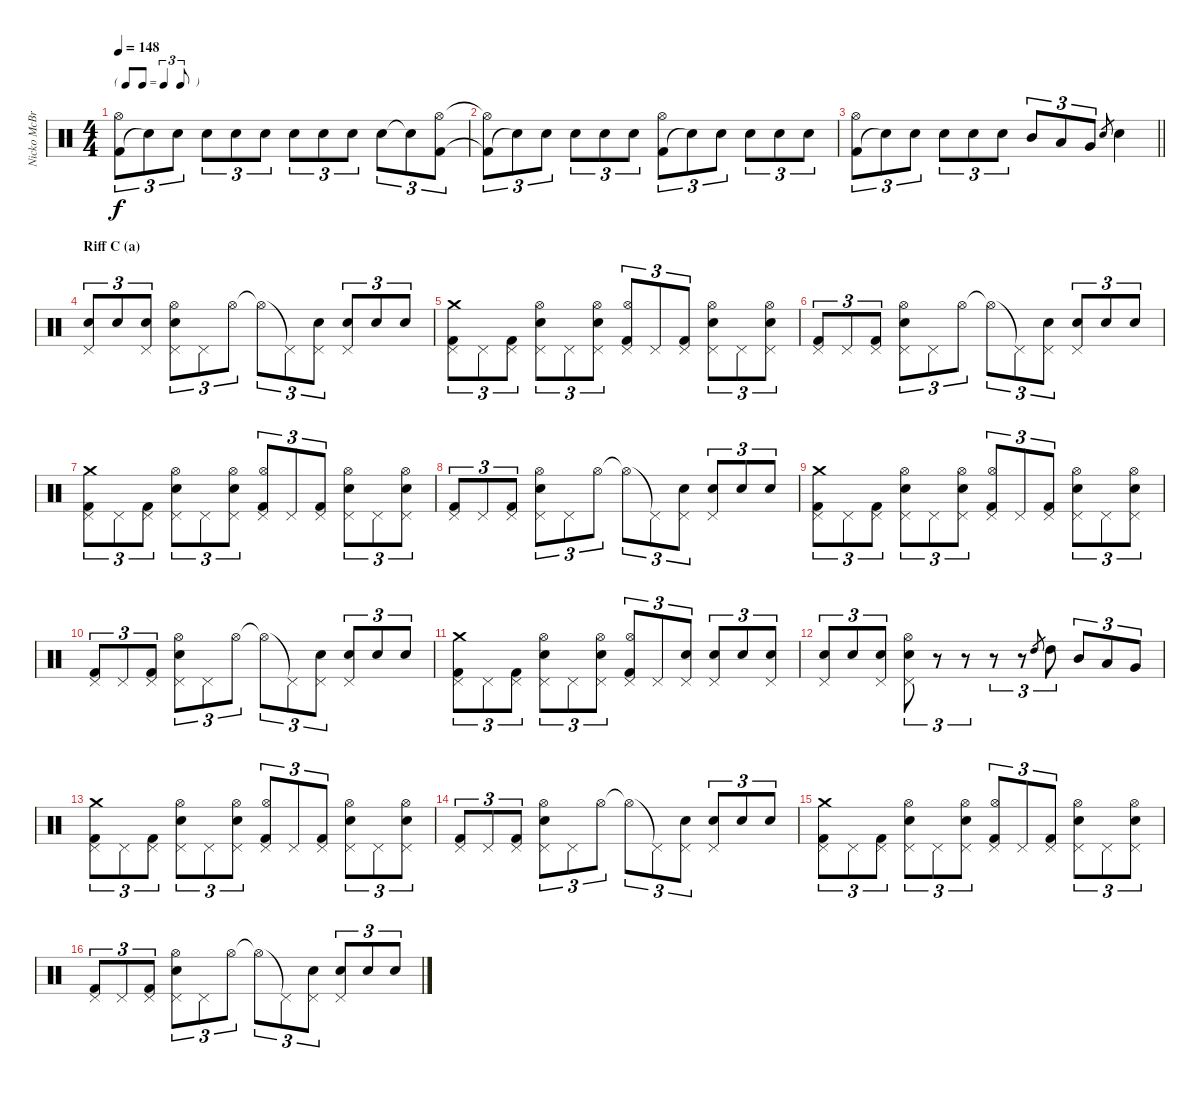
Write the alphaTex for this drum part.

\track ("Nicko McBrain" "Nicko McBr") {instrument percussion}
\staff {score}
\articulation defaults
\ts (4 4)
\tf triplet8th
\tempo 148
\clef neutral
\ks c
("Kick (hit) 2" "Hi-Hat (open)").8{tu (3 2) dy f} "Snare (hit)"{t}.8{tu (3 2)} "Snare (hit) 2".8{tu (3 2)} "Snare (hit) 2".8{tu (3 2)} "Snare (hit) 2".8{tu (3 2)} "Snare (hit) 2".8{tu (3 2)} "Snare (hit) 2".8{tu (3 2)} "Snare (hit) 2".8{tu (3 2)} "Snare (hit) 2".8{tu (3 2)} "Snare (hit) 2".8{tu (3 2)} "Snare (hit) 2"{t}.8{tu (3 2)} ("Kick (hit) 2" "Hi-Hat (open)").8{tu (3 2)} |
("Kick (hit) 2"{t} "Hi-Hat (open)"{t}).8{tu (3 2)} "Snare (hit)"{t}.8{tu (3 2)} "Snare (hit) 2".8{tu (3 2)} "Snare (hit) 2".8{tu (3 2)} "Snare (hit) 2".8{tu (3 2)} "Snare (hit) 2".8{tu (3 2)} ("Kick (hit) 2" "Hi-Hat (open)").8{tu (3 2)} "Snare (hit)"{t}.8{tu (3 2)} "Snare (hit) 2".8{tu (3 2)} "Snare (hit) 2".8{tu (3 2)} "Snare (hit) 2".8{tu (3 2)} "Snare (hit) 2".8{tu (3 2)} |
\barLineRight lightlight
("Kick (hit) 2" "Hi-Hat (open)").8{tu (3 2)} "Snare (hit)"{t}.8{tu (3 2)} "Snare (hit) 2".8{tu (3 2)} "Snare (hit) 2".8{tu (3 2)} "Snare (hit) 2".8{tu (3 2)} "Snare (hit) 2".8{tu (3 2)} "Mid Tom (hit)".8{tu (3 2)} "Low Tom (hit)".8{tu (3 2)} "Very Low Tom (hit)".8{tu (3 2)} "Snare (hit) 2".8{gr} "Snare (hit) 2".4 |
\section ("" "Riff C (a)")
("Snare (hit) 2" "Pedal Hi-Hat (hit)").8{tu (3 2)} "Snare (hit) 2".8{tu (3 2)} ("Snare (hit) 2" "Pedal Hi-Hat (hit)").8{tu (3 2)} ("Snare (hit) 2" "Pedal Hi-Hat (hit)" "Hi-Hat (open)").8{tu (3 2)} "Pedal Hi-Hat (hit)".8{tu (3 2)} "Hi-Hat (open)".8{tu (3 2)} "Hi-Hat (open)"{t}.8{tu (3 2)} "Pedal Hi-Hat (hit)"{t}.8{tu (3 2)} ("Snare (hit) 2" "Pedal Hi-Hat (hit)").8{tu (3 2)} ("Snare (hit) 2" "Pedal Hi-Hat (hit)").8{tu (3 2)} "Snare (hit) 2".8{tu (3 2)} "Snare (hit) 2".8{tu (3 2)} |
("Kick (hit) 2" "Pedal Hi-Hat (hit)" "Crash medium (hit)").8{tu (3 2)} "Pedal Hi-Hat (hit)".8{tu (3 2)} ("Kick (hit) 2" "Pedal Hi-Hat (hit)").8{tu (3 2)} ("Snare (hit) 2" "Pedal Hi-Hat (hit)" "Hi-Hat (open)").8{tu (3 2)} "Pedal Hi-Hat (hit)".8{tu (3 2)} ("Snare (hit) 2" "Pedal Hi-Hat (hit)" "Hi-Hat (open)").8{tu (3 2)} ("Kick (hit) 2" "Pedal Hi-Hat (hit)" "Hi-Hat (open)").8{tu (3 2)} "Pedal Hi-Hat (hit)".8{tu (3 2)} ("Kick (hit) 2" "Pedal Hi-Hat (hit)").8{tu (3 2)} ("Snare (hit) 2" "Pedal Hi-Hat (hit)" "Hi-Hat (open)").8{tu (3 2)} "Pedal Hi-Hat (hit)".8{tu (3 2)} ("Snare (hit) 2" "Pedal Hi-Hat (hit)" "Hi-Hat (open)").8{tu (3 2)} |
("Kick (hit) 2" "Pedal Hi-Hat (hit)").8{tu (3 2)} "Pedal Hi-Hat (hit)".8{tu (3 2)} ("Kick (hit) 2" "Pedal Hi-Hat (hit)").8{tu (3 2)} ("Snare (hit) 2" "Pedal Hi-Hat (hit)" "Hi-Hat (open)").8{tu (3 2)} "Pedal Hi-Hat (hit)".8{tu (3 2)} "Hi-Hat (open)".8{tu (3 2)} "Hi-Hat (open)"{t}.8{tu (3 2)} "Pedal Hi-Hat (hit)"{t}.8{tu (3 2)} ("Snare (hit) 2" "Pedal Hi-Hat (hit)").8{tu (3 2)} ("Snare (hit) 2" "Pedal Hi-Hat (hit)").8{tu (3 2)} "Snare (hit) 2".8{tu (3 2)} "Snare (hit) 2".8{tu (3 2)} |
("Kick (hit) 2" "Pedal Hi-Hat (hit)" "Crash medium (hit)").8{tu (3 2)} "Pedal Hi-Hat (hit)".8{tu (3 2)} ("Kick (hit) 2" "Pedal Hi-Hat (hit)").8{tu (3 2)} ("Snare (hit) 2" "Pedal Hi-Hat (hit)" "Hi-Hat (open)").8{tu (3 2)} "Pedal Hi-Hat (hit)".8{tu (3 2)} ("Snare (hit) 2" "Pedal Hi-Hat (hit)" "Hi-Hat (open)").8{tu (3 2)} ("Kick (hit) 2" "Pedal Hi-Hat (hit)" "Hi-Hat (open)").8{tu (3 2)} "Pedal Hi-Hat (hit)".8{tu (3 2)} ("Kick (hit) 2" "Pedal Hi-Hat (hit)").8{tu (3 2)} ("Snare (hit) 2" "Pedal Hi-Hat (hit)" "Hi-Hat (open)").8{tu (3 2)} "Pedal Hi-Hat (hit)".8{tu (3 2)} ("Snare (hit) 2" "Pedal Hi-Hat (hit)" "Hi-Hat (open)").8{tu (3 2)} |
("Kick (hit) 2" "Pedal Hi-Hat (hit)").8{tu (3 2)} "Pedal Hi-Hat (hit)".8{tu (3 2)} ("Kick (hit) 2" "Pedal Hi-Hat (hit)").8{tu (3 2)} ("Snare (hit) 2" "Pedal Hi-Hat (hit)" "Hi-Hat (open)").8{tu (3 2)} "Pedal Hi-Hat (hit)".8{tu (3 2)} "Hi-Hat (open)".8{tu (3 2)} "Hi-Hat (open)"{t}.8{tu (3 2)} "Pedal Hi-Hat (hit)"{t}.8{tu (3 2)} ("Snare (hit) 2" "Pedal Hi-Hat (hit)").8{tu (3 2)} ("Snare (hit) 2" "Pedal Hi-Hat (hit)").8{tu (3 2)} "Snare (hit) 2".8{tu (3 2)} "Snare (hit) 2".8{tu (3 2)} |
("Kick (hit) 2" "Pedal Hi-Hat (hit)" "Crash medium (hit)").8{tu (3 2)} "Pedal Hi-Hat (hit)".8{tu (3 2)} ("Kick (hit) 2" "Pedal Hi-Hat (hit)").8{tu (3 2)} ("Snare (hit) 2" "Pedal Hi-Hat (hit)" "Hi-Hat (open)").8{tu (3 2)} "Pedal Hi-Hat (hit)".8{tu (3 2)} ("Snare (hit) 2" "Pedal Hi-Hat (hit)" "Hi-Hat (open)").8{tu (3 2)} ("Kick (hit) 2" "Pedal Hi-Hat (hit)" "Hi-Hat (open)").8{tu (3 2)} "Pedal Hi-Hat (hit)".8{tu (3 2)} ("Kick (hit) 2" "Pedal Hi-Hat (hit)").8{tu (3 2)} ("Snare (hit) 2" "Pedal Hi-Hat (hit)" "Hi-Hat (open)").8{tu (3 2)} "Pedal Hi-Hat (hit)".8{tu (3 2)} ("Snare (hit) 2" "Pedal Hi-Hat (hit)" "Hi-Hat (open)").8{tu (3 2)} |
("Kick (hit) 2" "Pedal Hi-Hat (hit)").8{tu (3 2)} "Pedal Hi-Hat (hit)".8{tu (3 2)} ("Kick (hit) 2" "Pedal Hi-Hat (hit)").8{tu (3 2)} ("Snare (hit) 2" "Pedal Hi-Hat (hit)" "Hi-Hat (open)").8{tu (3 2)} "Pedal Hi-Hat (hit)".8{tu (3 2)} "Hi-Hat (open)".8{tu (3 2)} "Hi-Hat (open)"{t}.8{tu (3 2)} "Pedal Hi-Hat (hit)"{t}.8{tu (3 2)} ("Snare (hit) 2" "Pedal Hi-Hat (hit)").8{tu (3 2)} ("Snare (hit) 2" "Pedal Hi-Hat (hit)").8{tu (3 2)} "Snare (hit) 2".8{tu (3 2)} "Snare (hit) 2".8{tu (3 2)} |
("Kick (hit) 2" "Pedal Hi-Hat (hit)" "Crash medium (hit)").8{tu (3 2)} "Pedal Hi-Hat (hit)".8{tu (3 2)} ("Kick (hit) 2" "Pedal Hi-Hat (hit)").8{tu (3 2)} ("Snare (hit) 2" "Pedal Hi-Hat (hit)" "Hi-Hat (open)").8{tu (3 2)} "Pedal Hi-Hat (hit)".8{tu (3 2)} ("Snare (hit) 2" "Pedal Hi-Hat (hit)" "Hi-Hat (open)").8{tu (3 2)} ("Kick (hit) 2" "Pedal Hi-Hat (hit)" "Hi-Hat (open)").8{tu (3 2)} "Pedal Hi-Hat (hit)".8{tu (3 2)} ("Snare (hit) 2" "Pedal Hi-Hat (hit)").8{tu (3 2)} ("Snare (hit) 2" "Pedal Hi-Hat (hit)").8{tu (3 2)} "Snare (hit) 2".8{tu (3 2)} ("Snare (hit) 2" "Pedal Hi-Hat (hit)").8{tu (3 2)} |
("Snare (hit) 2" "Pedal Hi-Hat (hit)").8{tu (3 2)} "Snare (hit) 2".8{tu (3 2)} ("Snare (hit) 2" "Pedal Hi-Hat (hit)").8{tu (3 2)} ("Snare (hit) 2" "Pedal Hi-Hat (hit)" "Hi-Hat (open)").8{tu (3 2)} r.8{tu (3 2)} r.8{tu (3 2)} r.8{tu (3 2)} r.8{tu (3 2)} "High Tom (hit)".8{gr} "High Tom (hit)".8{tu (3 2)} "Mid Tom (hit)".8{tu (3 2)} "Low Tom (hit)".8{tu (3 2)} "Very Low Tom (hit)".8{tu (3 2)} |
("Kick (hit) 2" "Pedal Hi-Hat (hit)" "Crash medium (hit)").8{tu (3 2)} "Pedal Hi-Hat (hit)".8{tu (3 2)} ("Kick (hit) 2" "Pedal Hi-Hat (hit)").8{tu (3 2)} ("Snare (hit) 2" "Pedal Hi-Hat (hit)" "Hi-Hat (open)").8{tu (3 2)} "Pedal Hi-Hat (hit)".8{tu (3 2)} ("Snare (hit) 2" "Pedal Hi-Hat (hit)" "Hi-Hat (open)").8{tu (3 2)} ("Kick (hit) 2" "Pedal Hi-Hat (hit)" "Hi-Hat (open)").8{tu (3 2)} "Pedal Hi-Hat (hit)".8{tu (3 2)} ("Kick (hit) 2" "Pedal Hi-Hat (hit)").8{tu (3 2)} ("Snare (hit) 2" "Pedal Hi-Hat (hit)" "Hi-Hat (open)").8{tu (3 2)} "Pedal Hi-Hat (hit)".8{tu (3 2)} ("Snare (hit) 2" "Pedal Hi-Hat (hit)" "Hi-Hat (open)").8{tu (3 2)} |
("Kick (hit) 2" "Pedal Hi-Hat (hit)").8{tu (3 2)} "Pedal Hi-Hat (hit)".8{tu (3 2)} ("Kick (hit) 2" "Pedal Hi-Hat (hit)").8{tu (3 2)} ("Snare (hit) 2" "Pedal Hi-Hat (hit)" "Hi-Hat (open)").8{tu (3 2)} "Pedal Hi-Hat (hit)".8{tu (3 2)} "Hi-Hat (open)".8{tu (3 2)} "Hi-Hat (open)"{t}.8{tu (3 2)} "Pedal Hi-Hat (hit)"{t}.8{tu (3 2)} ("Snare (hit) 2" "Pedal Hi-Hat (hit)").8{tu (3 2)} ("Snare (hit) 2" "Pedal Hi-Hat (hit)").8{tu (3 2)} "Snare (hit) 2".8{tu (3 2)} "Snare (hit) 2".8{tu (3 2)} |
("Kick (hit) 2" "Pedal Hi-Hat (hit)" "Crash medium (hit)").8{tu (3 2)} "Pedal Hi-Hat (hit)".8{tu (3 2)} ("Kick (hit) 2" "Pedal Hi-Hat (hit)").8{tu (3 2)} ("Snare (hit) 2" "Pedal Hi-Hat (hit)" "Hi-Hat (open)").8{tu (3 2)} "Pedal Hi-Hat (hit)".8{tu (3 2)} ("Snare (hit) 2" "Pedal Hi-Hat (hit)" "Hi-Hat (open)").8{tu (3 2)} ("Kick (hit) 2" "Pedal Hi-Hat (hit)" "Hi-Hat (open)").8{tu (3 2)} "Pedal Hi-Hat (hit)".8{tu (3 2)} ("Kick (hit) 2" "Pedal Hi-Hat (hit)").8{tu (3 2)} ("Snare (hit) 2" "Pedal Hi-Hat (hit)" "Hi-Hat (open)").8{tu (3 2)} "Pedal Hi-Hat (hit)".8{tu (3 2)} ("Snare (hit) 2" "Pedal Hi-Hat (hit)" "Hi-Hat (open)").8{tu (3 2)} |
("Kick (hit) 2" "Pedal Hi-Hat (hit)").8{tu (3 2)} "Pedal Hi-Hat (hit)".8{tu (3 2)} ("Kick (hit) 2" "Pedal Hi-Hat (hit)").8{tu (3 2)} ("Snare (hit) 2" "Pedal Hi-Hat (hit)" "Hi-Hat (open)").8{tu (3 2)} "Pedal Hi-Hat (hit)".8{tu (3 2)} "Hi-Hat (open)".8{tu (3 2)} "Hi-Hat (open)"{t}.8{tu (3 2)} "Pedal Hi-Hat (hit)"{t}.8{tu (3 2)} ("Snare (hit) 2" "Pedal Hi-Hat (hit)").8{tu (3 2)} ("Snare (hit) 2" "Pedal Hi-Hat (hit)").8{tu (3 2)} "Snare (hit) 2".8{tu (3 2)} "Snare (hit) 2".8{tu (3 2)}
